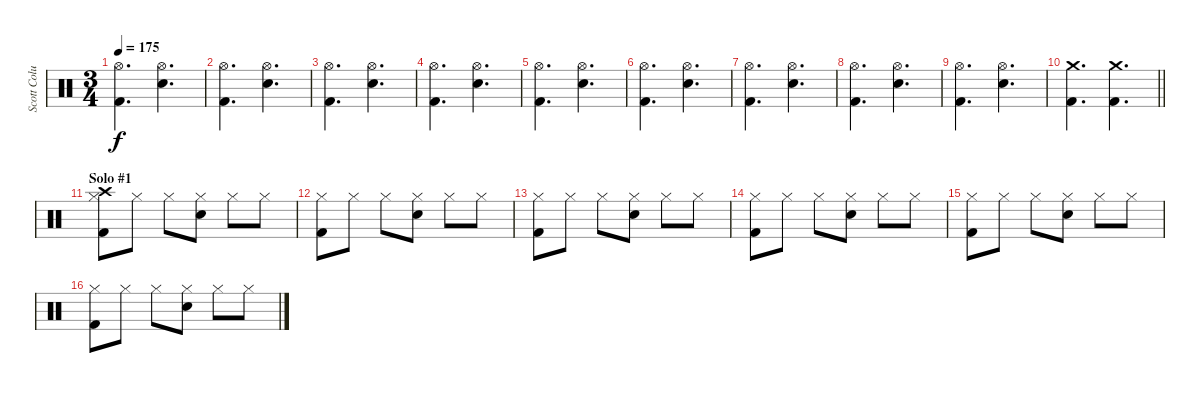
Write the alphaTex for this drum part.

\track ("Scott Columbus" "Scott Colu") {instrument percussion}
\staff {score}
\articulation defaults
\ts (3 4)
\tempo 175
\clef neutral
\ks c
("Kick (hit) 2" "Hi-Hat (open)").4{d dy f} ("Snare (hit) 2" "Hi-Hat (open)").4{d} |
("Kick (hit) 2" "Hi-Hat (open)").4{d} ("Snare (hit) 2" "Hi-Hat (open)").4{d} |
("Kick (hit) 2" "Hi-Hat (open)").4{d} ("Snare (hit) 2" "Hi-Hat (open)").4{d} |
("Kick (hit) 2" "Hi-Hat (open)").4{d} ("Snare (hit) 2" "Hi-Hat (open)").4{d} |
("Kick (hit) 2" "Hi-Hat (open)").4{d} ("Snare (hit) 2" "Hi-Hat (open)").4{d} |
("Kick (hit) 2" "Hi-Hat (open)").4{d} ("Snare (hit) 2" "Hi-Hat (open)").4{d} |
("Kick (hit) 2" "Hi-Hat (open)").4{d} ("Snare (hit) 2" "Hi-Hat (open)").4{d} |
("Kick (hit) 2" "Hi-Hat (open)").4{d} ("Snare (hit) 2" "Hi-Hat (open)").4{d} |
("Kick (hit) 2" "Hi-Hat (open)").4{d} ("Snare (hit) 2" "Hi-Hat (open)").4{d} |
\barLineRight lightlight
("Kick (hit) 2" "Crash medium (hit)").4{d} ("Kick (hit) 2" "Crash medium (hit)").4{d} |
\section ("" "Solo #1")
("Kick (hit) 2" "Hi-Hat (closed)" "Crash high (hit)").8 "Hi-Hat (closed)".8 "Hi-Hat (closed)".8 ("Snare (hit) 2" "Hi-Hat (closed)").8 "Hi-Hat (closed)".8 "Hi-Hat (closed)".8 |
("Kick (hit) 2" "Hi-Hat (closed)").8 "Hi-Hat (closed)".8 "Hi-Hat (closed)".8 ("Snare (hit) 2" "Hi-Hat (closed)").8 "Hi-Hat (closed)".8 "Hi-Hat (closed)".8 |
("Kick (hit) 2" "Hi-Hat (closed)").8 "Hi-Hat (closed)".8 "Hi-Hat (closed)".8 ("Snare (hit) 2" "Hi-Hat (closed)").8 "Hi-Hat (closed)".8 "Hi-Hat (closed)".8 |
("Kick (hit) 2" "Hi-Hat (closed)").8 "Hi-Hat (closed)".8 "Hi-Hat (closed)".8 ("Snare (hit) 2" "Hi-Hat (closed)").8 "Hi-Hat (closed)".8 "Hi-Hat (closed)".8 |
("Kick (hit) 2" "Hi-Hat (closed)").8 "Hi-Hat (closed)".8 "Hi-Hat (closed)".8 ("Snare (hit) 2" "Hi-Hat (closed)").8 "Hi-Hat (closed)".8 "Hi-Hat (closed)".8 |
("Kick (hit) 2" "Hi-Hat (closed)").8 "Hi-Hat (closed)".8 "Hi-Hat (closed)".8 ("Snare (hit) 2" "Hi-Hat (closed)").8 "Hi-Hat (closed)".8 "Hi-Hat (closed)".8
